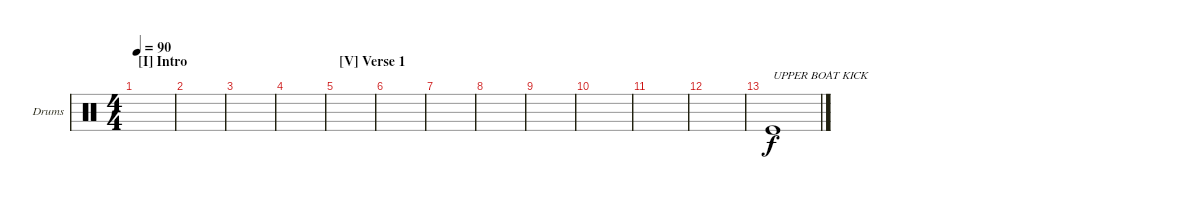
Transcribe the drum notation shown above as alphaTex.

\defaultSystemsLayout 4
\bracketExtendMode groupsimilarinstruments
\firstSystemTrackNameOrientation horizontal
\otherSystemsTrackNameOrientation horizontal
\track ("Drumkit" "Drums") {instrument percussion}
\staff {score}
\articulation defaults
\ts (4 4)
\section ("I" "Intro")
\tempo 90
\clef neutral
\scale
0.472222
\ks c
|
\scale
0.263889 |
\scale
0.263889 |
\scale
0.333333 |
\section ("V" "Verse 1")
\scale
0.333333 |
\scale
0.333333 |
\scale
0.333333 |
\scale
0.333333 |
\scale
0.333333 |
\scale
0.333333 |
\scale
0.333333 |
\scale
0.333333 |
\scale
0.333333 "Kick (hit)".1{txt "UPPER BOAT KICK "} |
\scale
0.333333 |
\scale
0.333333 |
\scale
0.333333
